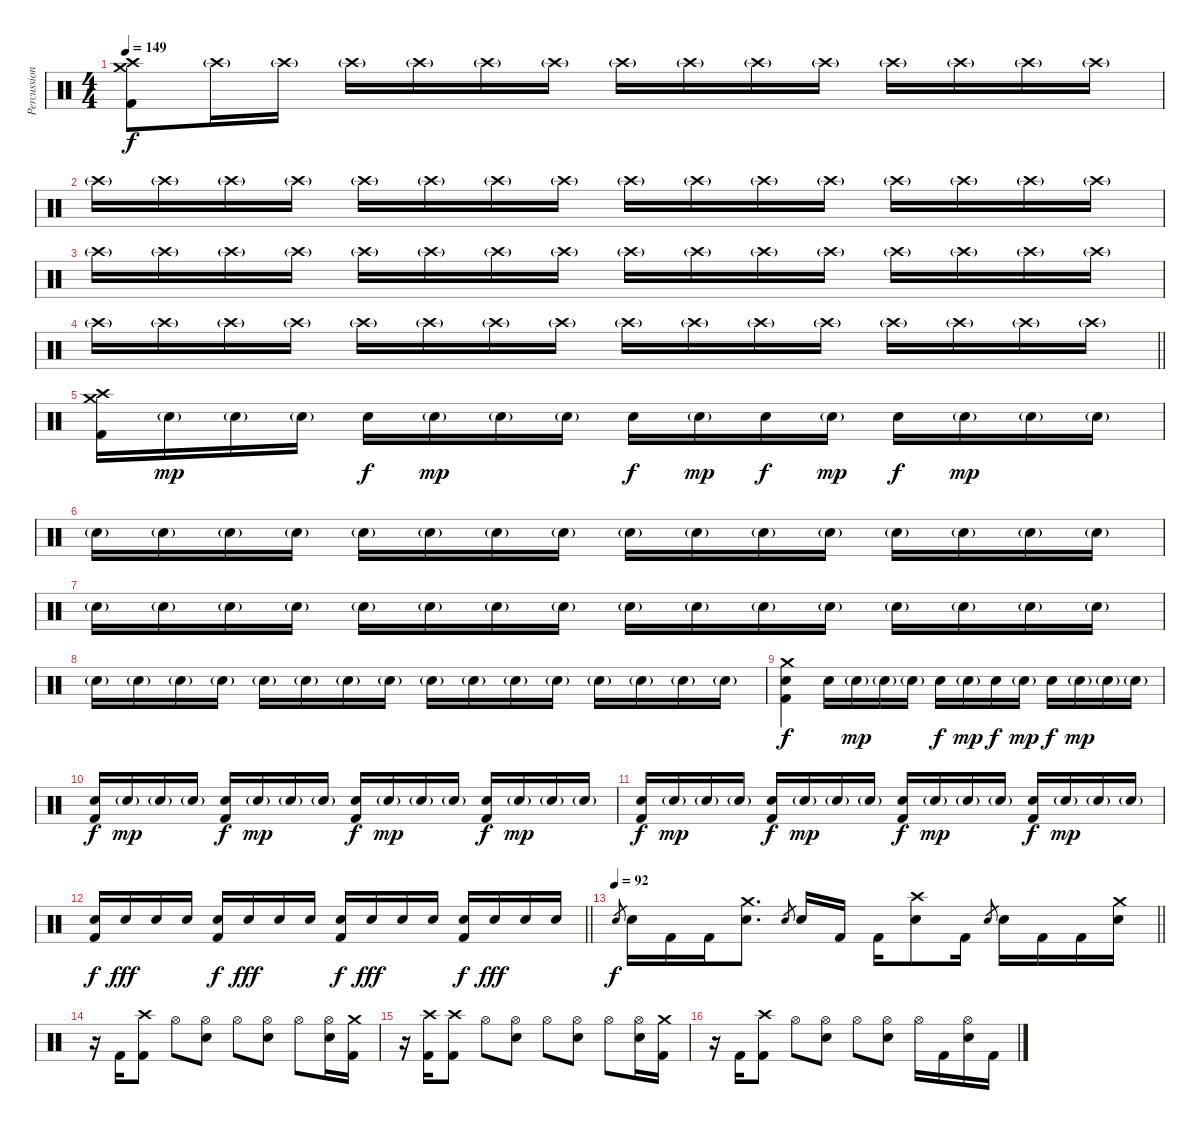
\track ("Percussion (Moose)" "Percussion") {instrument percussion}
\staff {score}
\articulation defaults
\ts (4 4)
\tempo 149
\clef neutral
\ks c
("Crash high (hit)" "Crash medium (hit)" "Kick (hit) 2").8{dy f} "Crash high (hit)"{g}.16 "Crash high (hit)"{g}.16 "Crash high (hit)"{g}.16 "Crash high (hit)"{g}.16 "Crash high (hit)"{g}.16 "Crash high (hit)"{g}.16 "Crash high (hit)"{g}.16 "Crash high (hit)"{g}.16 "Crash high (hit)"{g}.16 "Crash high (hit)"{g}.16 "Crash high (hit)"{g}.16 "Crash high (hit)"{g}.16 "Crash high (hit)"{g}.16 "Crash high (hit)"{g}.16 |
"Crash high (hit)"{g}.16 "Crash high (hit)"{g}.16 "Crash high (hit)"{g}.16 "Crash high (hit)"{g}.16 "Crash high (hit)"{g}.16 "Crash high (hit)"{g}.16 "Crash high (hit)"{g}.16 "Crash high (hit)"{g}.16 "Crash high (hit)"{g}.16 "Crash high (hit)"{g}.16 "Crash high (hit)"{g}.16 "Crash high (hit)"{g}.16 "Crash high (hit)"{g}.16 "Crash high (hit)"{g}.16 "Crash high (hit)"{g}.16 "Crash high (hit)"{g}.16 |
"Crash high (hit)"{g}.16 "Crash high (hit)"{g}.16 "Crash high (hit)"{g}.16 "Crash high (hit)"{g}.16 "Crash high (hit)"{g}.16 "Crash high (hit)"{g}.16 "Crash high (hit)"{g}.16 "Crash high (hit)"{g}.16 "Crash high (hit)"{g}.16 "Crash high (hit)"{g}.16 "Crash high (hit)"{g}.16 "Crash high (hit)"{g}.16 "Crash high (hit)"{g}.16 "Crash high (hit)"{g}.16 "Crash high (hit)"{g}.16 "Crash high (hit)"{g}.16 |
\barLineRight lightlight "Crash high (hit)"{g}.16 "Crash high (hit)"{g}.16 "Crash high (hit)"{g}.16 "Crash high (hit)"{g}.16 "Crash high (hit)"{g}.16 "Crash high (hit)"{g}.16 "Crash high (hit)"{g}.16 "Crash high (hit)"{g}.16 "Crash high (hit)"{g}.16 "Crash high (hit)"{g}.16 "Crash high (hit)"{g}.16 "Crash high (hit)"{g}.16 "Crash high (hit)"{g}.16 "Crash high (hit)"{g}.16 "Crash high (hit)"{g}.16 "Crash high (hit)"{g}.16
|
("Crash high (hit)" "Crash medium (hit)" "Kick (hit) 2").16 "Electric Snare (hit)"{g}.16{dy mp} "Electric Snare (hit)"{g}.16 "Electric Snare (hit)"{g}.16 "Electric Snare (hit)".16{dy f} "Electric Snare (hit)"{g}.16{dy mp} "Electric Snare (hit)"{g}.16 "Electric Snare (hit)"{g}.16 "Electric Snare (hit)".16{dy f} "Electric Snare (hit)"{g}.16{dy mp} "Electric Snare (hit)".16{dy f} "Electric Snare (hit)"{g}.16{dy mp} "Electric Snare (hit)".16{dy f} "Electric Snare (hit)"{g}.16{dy mp} "Electric Snare (hit)"{g}.16 "Electric Snare (hit)"{g}.16 |
"Electric Snare (hit)"{g}.16 "Electric Snare (hit)"{g}.16 "Electric Snare (hit)"{g}.16 "Electric Snare (hit)"{g}.16 "Electric Snare (hit)"{g}.16 "Electric Snare (hit)"{g}.16 "Electric Snare (hit)"{g}.16 "Electric Snare (hit)"{g}.16 "Electric Snare (hit)"{g}.16 "Electric Snare (hit)"{g}.16 "Electric Snare (hit)"{g}.16 "Electric Snare (hit)"{g}.16 "Electric Snare (hit)"{g}.16 "Electric Snare (hit)"{g}.16 "Electric Snare (hit)"{g}.16 "Electric Snare (hit)"{g}.16 |
"Electric Snare (hit)"{g}.16 "Electric Snare (hit)"{g}.16 "Electric Snare (hit)"{g}.16 "Electric Snare (hit)"{g}.16 "Electric Snare (hit)"{g}.16 "Electric Snare (hit)"{g}.16 "Electric Snare (hit)"{g}.16 "Electric Snare (hit)"{g}.16 "Electric Snare (hit)"{g}.16 "Electric Snare (hit)"{g}.16 "Electric Snare (hit)"{g}.16 "Electric Snare (hit)"{g}.16 "Electric Snare (hit)"{g}.16 "Electric Snare (hit)"{g}.16 "Electric Snare (hit)"{g}.16 "Electric Snare (hit)"{g}.16 |
"Electric Snare (hit)"{g}.16 "Electric Snare (hit)"{g}.16 "Electric Snare (hit)"{g}.16 "Electric Snare (hit)"{g}.16 "Electric Snare (hit)"{g}.16 "Electric Snare (hit)"{g}.16 "Electric Snare (hit)"{g}.16 "Electric Snare (hit)"{g}.16 "Electric Snare (hit)"{g}.16 "Electric Snare (hit)"{g}.16 "Electric Snare (hit)"{g}.16 "Electric Snare (hit)"{g}.16 "Electric Snare (hit)"{g}.16 "Electric Snare (hit)"{g}.16 "Electric Snare (hit)"{g}.16 "Electric Snare (hit)"{g}.16 |
("Crash medium (hit)" "Electric Snare (hit)" "Kick (hit) 2").4{dy f} "Electric Snare (hit)".16 "Electric Snare (hit)"{g}.16{dy mp} "Electric Snare (hit)"{g}.16 "Electric Snare (hit)"{g}.16 "Electric Snare (hit)".16{dy f} "Electric Snare (hit)"{g}.16{dy mp} "Electric Snare (hit)".16{dy f} "Electric Snare (hit)"{g}.16{dy mp} "Electric Snare (hit)".16{dy f} "Electric Snare (hit)"{g}.16{dy mp} "Electric Snare (hit)"{g}.16 "Electric Snare (hit)"{g}.16 |
("Electric Snare (hit)" "Kick (hit) 2").16{dy f} "Electric Snare (hit)"{g}.16{dy mp} "Electric Snare (hit)"{g}.16 "Electric Snare (hit)"{g}.16 ("Electric Snare (hit)" "Kick (hit) 2").16{dy f} "Electric Snare (hit)"{g}.16{dy mp} "Electric Snare (hit)"{g}.16 "Electric Snare (hit)"{g}.16 ("Electric Snare (hit)" "Kick (hit) 2").16{dy f} "Electric Snare (hit)"{g}.16{dy mp} "Electric Snare (hit)"{g}.16 "Electric Snare (hit)"{g}.16 ("Electric Snare (hit)" "Kick (hit) 2").16{dy f} "Electric Snare (hit)"{g}.16{dy mp} "Electric Snare (hit)"{g}.16 "Electric Snare (hit)"{g}.16 |
("Electric Snare (hit)" "Kick (hit) 2").16{dy f} "Electric Snare (hit)"{g}.16{dy mp} "Electric Snare (hit)"{g}.16 "Electric Snare (hit)"{g}.16 ("Electric Snare (hit)" "Kick (hit) 2").16{dy f} "Electric Snare (hit)"{g}.16{dy mp} "Electric Snare (hit)"{g}.16 "Electric Snare (hit)"{g}.16 ("Electric Snare (hit)" "Kick (hit) 2").16{dy f} "Electric Snare (hit)"{g}.16{dy mp} "Electric Snare (hit)"{g}.16 "Electric Snare (hit)"{g}.16 ("Electric Snare (hit)" "Kick (hit) 2").16{dy f} "Electric Snare (hit)"{g}.16{dy mp} "Electric Snare (hit)"{g}.16 "Electric Snare (hit)"{g}.16 |
\barLineRight lightlight
("Electric Snare (hit)" "Kick (hit) 2").16{dy f} "Electric Snare (hit)".16{dy fff} "Electric Snare (hit)".16 "Electric Snare (hit)".16 ("Electric Snare (hit)" "Kick (hit) 2").16{dy f} "Electric Snare (hit)".16{dy fff} "Electric Snare (hit)".16 "Electric Snare (hit)".16 ("Electric Snare (hit)" "Kick (hit) 2").16{dy f} "Electric Snare (hit)".16{dy fff} "Electric Snare (hit)".16 "Electric Snare (hit)".16 ("Electric Snare (hit)" "Kick (hit) 2").16{dy f} "Electric Snare (hit)".16{dy fff} "Electric Snare (hit)".16 "Electric Snare (hit)".16 |
\tempo 92
\barLineRight lightlight "Electric Snare (hit)".8{gr dy f} "Electric Snare (hit)".16 "Kick (hit) 2".16 "Kick (hit) 2".16
("Crash medium (hit)" "Electric Snare (hit)").8{d} "Electric Snare (hit)".8{gr} "Electric Snare (hit)".16 "Kick (hit) 2".16 "Kick (hit) 2".16 ("Crash high (hit)" "Electric Snare (hit)").8 "Kick (hit) 2".16 "Electric Snare (hit)".8{gr} "Electric Snare (hit)".16 "Kick (hit) 2".16 "Kick (hit) 2".16 ("Crash medium (hit)" "Electric Snare (hit)").16 |
r.16 "Kick (hit) 2".16 ("Crash high (hit)" "Kick (hit) 2").8 "Hi-Hat (open)".8 ("Hi-Hat (open)" "Electric Snare (hit)").8 "Hi-Hat (open)".8 ("Hi-Hat (open)" "Electric Snare (hit)").8 "Hi-Hat (open)".8 ("Hi-Hat (open)" "Electric Snare (hit)").16 ("Crash medium (hit)" "Kick (hit) 2").16 |
r.16 ("Crash high (hit)" "Kick (hit) 2").16 ("Crash high (hit)" "Kick (hit) 2").8 "Hi-Hat (open)".8 ("Hi-Hat (open)" "Electric Snare (hit)").8 "Hi-Hat (open)".8 ("Hi-Hat (open)" "Electric Snare (hit)").8 "Hi-Hat (open)".8 ("Hi-Hat (open)" "Electric Snare (hit)").16 ("Crash medium (hit)" "Kick (hit) 2").16 |
r.16 "Kick (hit) 2".16 ("Crash high (hit)" "Kick (hit) 2").8 "Hi-Hat (open)".8 ("Hi-Hat (open)" "Electric Snare (hit)").8 "Hi-Hat (open)".8 ("Hi-Hat (open)" "Electric Snare (hit)").8 "Hi-Hat (open)".16 "Kick (hit) 2".16 ("Hi-Hat (open)" "Electric Snare (hit)").16 "Kick (hit) 2".16
